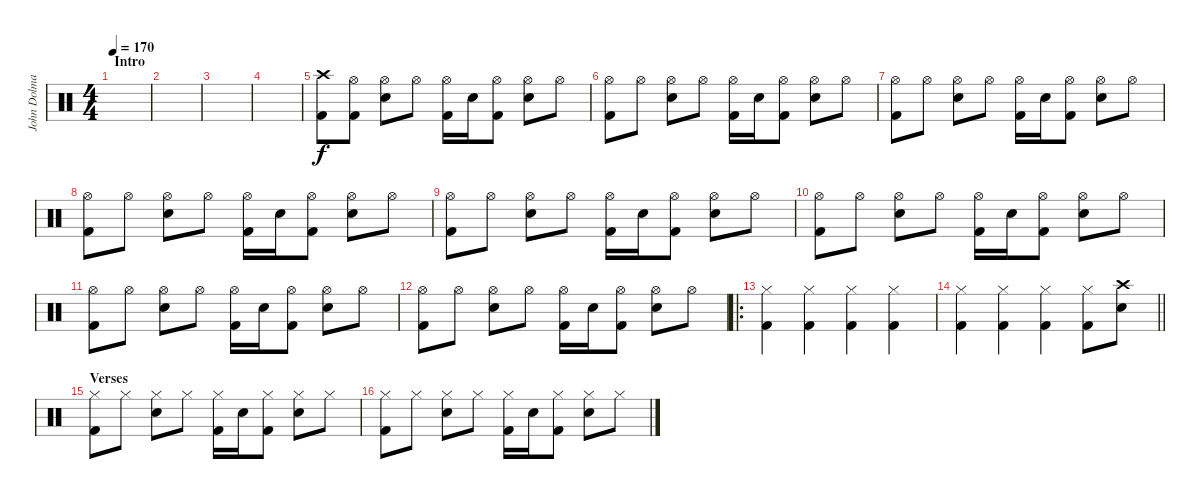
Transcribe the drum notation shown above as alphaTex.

\track ("John Dolmayan" "John Dolma") {instrument percussion}
\staff {score}
\articulation defaults
\ts (4 4)
\section ("" "Intro")
\tempo 170
\clef neutral
\ks c
|
|
|
|
("Crash high (hit)" "Kick (hit) 2").8 ("Hi-Hat (open)" "Kick (hit) 2").8 ("Hi-Hat (open)" "Electric Snare (hit)").8 "Hi-Hat (open)".8 ("Hi-Hat (open)" "Kick (hit) 2").16 "Electric Snare (hit)".16 ("Hi-Hat (open)" "Kick (hit) 2").8 ("Hi-Hat (open)" "Electric Snare (hit)").8 "Hi-Hat (open)".8 |
("Hi-Hat (open)" "Kick (hit) 2").8 "Hi-Hat (open)".8 ("Hi-Hat (open)" "Electric Snare (hit)").8 "Hi-Hat (open)".8 ("Hi-Hat (open)" "Kick (hit) 2").16 "Electric Snare (hit)".16 ("Hi-Hat (open)" "Kick (hit) 2").8 ("Hi-Hat (open)" "Electric Snare (hit)").8 "Hi-Hat (open)".8 |
("Hi-Hat (open)" "Kick (hit) 2").8 "Hi-Hat (open)".8 ("Hi-Hat (open)" "Electric Snare (hit)").8 "Hi-Hat (open)".8 ("Hi-Hat (open)" "Kick (hit) 2").16 "Electric Snare (hit)".16 ("Hi-Hat (open)" "Kick (hit) 2").8 ("Hi-Hat (open)" "Electric Snare (hit)").8 "Hi-Hat (open)".8 |
("Hi-Hat (open)" "Kick (hit) 2").8 "Hi-Hat (open)".8 ("Hi-Hat (open)" "Electric Snare (hit)").8 "Hi-Hat (open)".8 ("Hi-Hat (open)" "Kick (hit) 2").16 "Electric Snare (hit)".16 ("Hi-Hat (open)" "Kick (hit) 2").8 ("Hi-Hat (open)" "Electric Snare (hit)").8 "Hi-Hat (open)".8 |
("Hi-Hat (open)" "Kick (hit) 2").8 "Hi-Hat (open)".8 ("Hi-Hat (open)" "Electric Snare (hit)").8 "Hi-Hat (open)".8 ("Hi-Hat (open)" "Kick (hit) 2").16 "Electric Snare (hit)".16 ("Hi-Hat (open)" "Kick (hit) 2").8 ("Hi-Hat (open)" "Electric Snare (hit)").8 "Hi-Hat (open)".8 |
("Hi-Hat (open)" "Kick (hit) 2").8 "Hi-Hat (open)".8 ("Hi-Hat (open)" "Electric Snare (hit)").8 "Hi-Hat (open)".8 ("Hi-Hat (open)" "Kick (hit) 2").16 "Electric Snare (hit)".16 ("Hi-Hat (open)" "Kick (hit) 2").8 ("Hi-Hat (open)" "Electric Snare (hit)").8 "Hi-Hat (open)".8 |
("Hi-Hat (open)" "Kick (hit) 2").8 "Hi-Hat (open)".8 ("Hi-Hat (open)" "Electric Snare (hit)").8 "Hi-Hat (open)".8 ("Hi-Hat (open)" "Kick (hit) 2").16 "Electric Snare (hit)".16 ("Hi-Hat (open)" "Kick (hit) 2").8 ("Hi-Hat (open)" "Electric Snare (hit)").8 "Hi-Hat (open)".8 |
("Hi-Hat (open)" "Kick (hit) 2").8 "Hi-Hat (open)".8 ("Hi-Hat (open)" "Electric Snare (hit)").8 "Hi-Hat (open)".8 ("Hi-Hat (open)" "Kick (hit) 2").16 "Electric Snare (hit)".16 ("Hi-Hat (open)" "Kick (hit) 2").8 ("Hi-Hat (open)" "Electric Snare (hit)").8 "Hi-Hat (open)".8 |
\ro
("Hi-Hat (closed)" "Kick (hit) 2").4 ("Hi-Hat (closed)" "Kick (hit) 2").4 ("Hi-Hat (closed)" "Kick (hit) 2").4 ("Hi-Hat (closed)" "Kick (hit) 2").4 |
\barLineRight lightlight
("Hi-Hat (closed)" "Kick (hit) 2").4 ("Hi-Hat (closed)" "Kick (hit) 2").4 ("Hi-Hat (closed)" "Kick (hit) 2").4 ("Hi-Hat (closed)" "Kick (hit) 2").8 ("Crash high (hit)" "Electric Snare (hit)").8 |
\section ("" "Verses")
("Hi-Hat (closed)" "Kick (hit) 2").8 "Hi-Hat (closed)".8 ("Hi-Hat (closed)" "Electric Snare (hit)").8 "Hi-Hat (closed)".8 ("Hi-Hat (closed)" "Kick (hit) 2").16 "Electric Snare (hit)".16 ("Hi-Hat (closed)" "Kick (hit) 2").8 ("Hi-Hat (closed)" "Electric Snare (hit)").8 "Hi-Hat (closed)".8 |
("Hi-Hat (closed)" "Kick (hit) 2").8 "Hi-Hat (closed)".8 ("Hi-Hat (closed)" "Electric Snare (hit)").8 "Hi-Hat (closed)".8 ("Hi-Hat (closed)" "Kick (hit) 2").16 "Electric Snare (hit)".16 ("Hi-Hat (closed)" "Kick (hit) 2").8 ("Hi-Hat (closed)" "Electric Snare (hit)").8 "Hi-Hat (closed)".8
